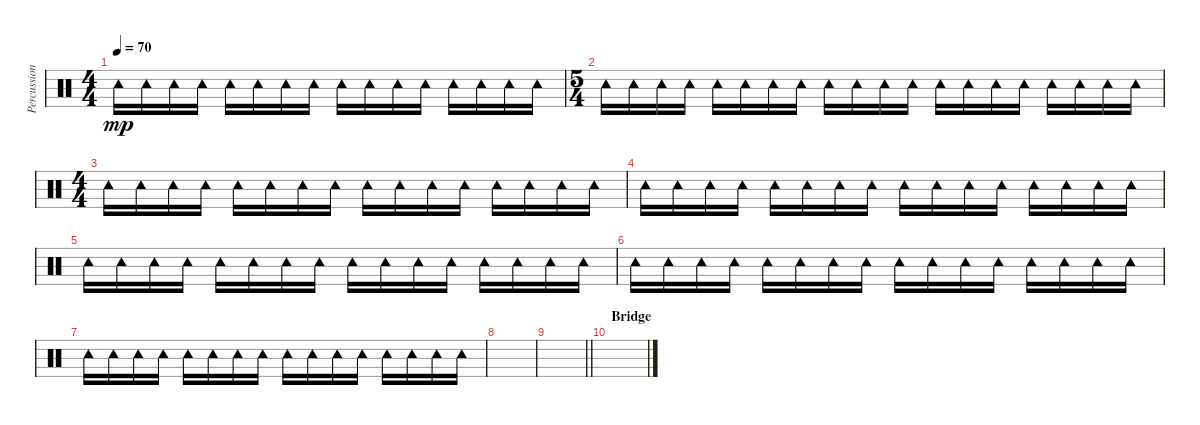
\track ("Percussion" "Percussion") {instrument percussion}
\staff {score}
\articulation defaults
\ts (4 4)
\tempo 70
\clef neutral
\ks c "Tambourine (hit)".16{dy mp} "Tambourine (hit)".16 "Tambourine (hit)".16 "Tambourine (hit)".16 "Tambourine (hit)".16 "Tambourine (hit)".16 "Tambourine (hit)".16 "Tambourine (hit)".16 "Tambourine (hit)".16 "Tambourine (hit)".16 "Tambourine (hit)".16 "Tambourine (hit)".16 "Tambourine (hit)".16 "Tambourine (hit)".16 "Tambourine (hit)".16 "Tambourine (hit)".16
|
\ts (5 4)
"Tambourine (hit)".16 "Tambourine (hit)".16 "Tambourine (hit)".16 "Tambourine (hit)".16 "Tambourine (hit)".16 "Tambourine (hit)".16 "Tambourine (hit)".16 "Tambourine (hit)".16 "Tambourine (hit)".16 "Tambourine (hit)".16 "Tambourine (hit)".16 "Tambourine (hit)".16 "Tambourine (hit)".16 "Tambourine (hit)".16 "Tambourine (hit)".16 "Tambourine (hit)".16 "Tambourine (hit)".16 "Tambourine (hit)".16 "Tambourine (hit)".16 "Tambourine (hit)".16 |
\ts (4 4)
"Tambourine (hit)".16 "Tambourine (hit)".16 "Tambourine (hit)".16 "Tambourine (hit)".16 "Tambourine (hit)".16 "Tambourine (hit)".16 "Tambourine (hit)".16 "Tambourine (hit)".16 "Tambourine (hit)".16 "Tambourine (hit)".16 "Tambourine (hit)".16 "Tambourine (hit)".16 "Tambourine (hit)".16 "Tambourine (hit)".16 "Tambourine (hit)".16 "Tambourine (hit)".16 |
"Tambourine (hit)".16 "Tambourine (hit)".16 "Tambourine (hit)".16 "Tambourine (hit)".16 "Tambourine (hit)".16 "Tambourine (hit)".16 "Tambourine (hit)".16 "Tambourine (hit)".16 "Tambourine (hit)".16 "Tambourine (hit)".16 "Tambourine (hit)".16 "Tambourine (hit)".16 "Tambourine (hit)".16 "Tambourine (hit)".16 "Tambourine (hit)".16 "Tambourine (hit)".16 |
"Tambourine (hit)".16 "Tambourine (hit)".16 "Tambourine (hit)".16 "Tambourine (hit)".16 "Tambourine (hit)".16 "Tambourine (hit)".16 "Tambourine (hit)".16 "Tambourine (hit)".16 "Tambourine (hit)".16 "Tambourine (hit)".16 "Tambourine (hit)".16 "Tambourine (hit)".16 "Tambourine (hit)".16 "Tambourine (hit)".16 "Tambourine (hit)".16 "Tambourine (hit)".16 |
"Tambourine (hit)".16 "Tambourine (hit)".16 "Tambourine (hit)".16 "Tambourine (hit)".16 "Tambourine (hit)".16 "Tambourine (hit)".16 "Tambourine (hit)".16 "Tambourine (hit)".16 "Tambourine (hit)".16 "Tambourine (hit)".16 "Tambourine (hit)".16 "Tambourine (hit)".16 "Tambourine (hit)".16 "Tambourine (hit)".16 "Tambourine (hit)".16 "Tambourine (hit)".16 |
"Tambourine (hit)".16 "Tambourine (hit)".16 "Tambourine (hit)".16 "Tambourine (hit)".16 "Tambourine (hit)".16 "Tambourine (hit)".16 "Tambourine (hit)".16 "Tambourine (hit)".16 "Tambourine (hit)".16 "Tambourine (hit)".16 "Tambourine (hit)".16 "Tambourine (hit)".16 "Tambourine (hit)".16 "Tambourine (hit)".16 "Tambourine (hit)".16 "Tambourine (hit)".16 |
|
\barLineRight lightlight
|
\section ("" "Bridge")
